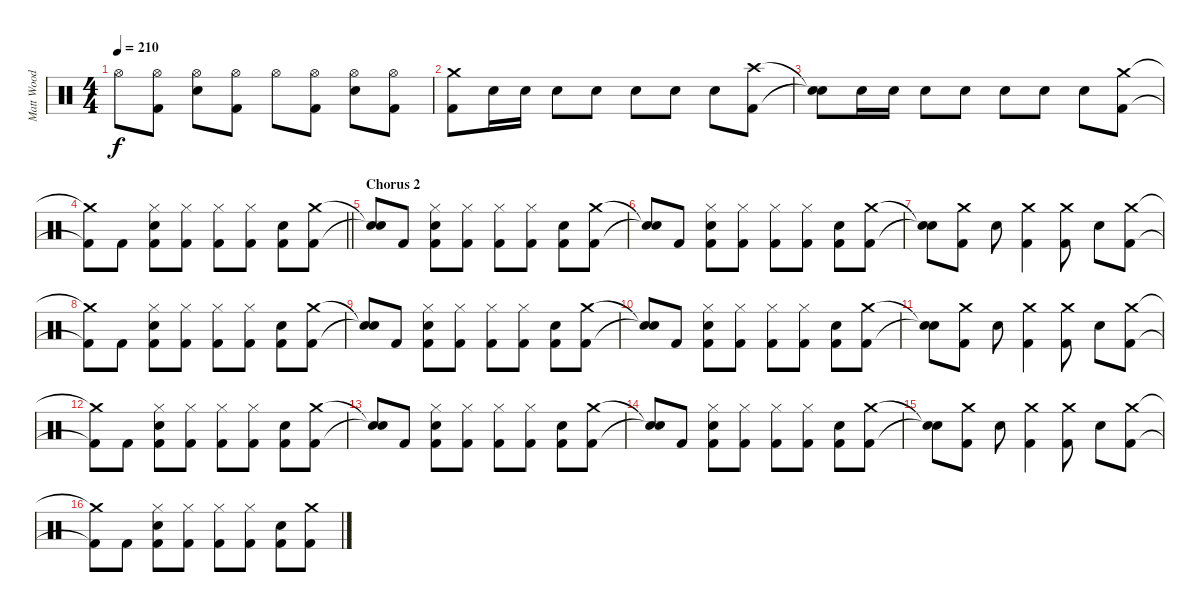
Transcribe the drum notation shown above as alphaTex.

\track ("Matt Wood" "Matt Wood") {instrument percussion}
\staff {score}
\articulation defaults
\ts (4 4)
\tempo 210
\clef neutral
\ks c "Hi-Hat (open)".8{dy f}
("Hi-Hat (open)" "Kick (hit) 2").8 ("Hi-Hat (open)" "Snare (hit) 2").8 ("Hi-Hat (open)" "Kick (hit) 2").8 "Hi-Hat (open)".8 ("Hi-Hat (open)" "Kick (hit) 2").8 ("Hi-Hat (open)" "Snare (hit) 2").8 ("Hi-Hat (open)" "Kick (hit) 2").8 |
("Crash medium (hit)" "Kick (hit) 2").8 "Snare (hit) 2".16 "Snare (hit) 2".16 "Snare (hit) 2".8 "Snare (hit) 2".8 "Snare (hit) 2".8 "Snare (hit) 2".8 "Snare (hit) 2".8 ("Crash high (hit)" "Kick (hit) 2").8 |
("Snare (hit)"{t} "Snare (hit)"{t}).8 "Snare (hit) 2".16 "Snare (hit) 2".16 "Snare (hit) 2".8 "Snare (hit) 2".8 "Snare (hit) 2".8 "Snare (hit) 2".8 "Snare (hit) 2".8 ("Crash medium (hit)" "Kick (hit) 2").8 |
\barLineRight lightlight
("Crash medium (hit)"{t} "Kick (hit) 2"{t}).8 "Kick (hit) 2".8 ("Hi-Hat (closed)" "Snare (hit) 2" "Kick (hit) 2").8 ("Hi-Hat (closed)" "Kick (hit) 2").8 ("Hi-Hat (closed)" "Kick (hit) 2").8 ("Hi-Hat (closed)" "Kick (hit) 2").8 ("Snare (hit) 2" "Kick (hit) 2").8 ("Crash medium (hit)" "Kick (hit) 2").8 |
\section ("" "Chorus 2")
("Snare (hit)"{t} "Snare (hit)"{t}).8 "Kick (hit) 2".8 ("Hi-Hat (closed)" "Snare (hit) 2" "Kick (hit) 2").8 ("Hi-Hat (closed)" "Kick (hit) 2").8 ("Hi-Hat (closed)" "Kick (hit) 2").8 ("Hi-Hat (closed)" "Kick (hit) 2").8 ("Snare (hit) 2" "Kick (hit) 2").8 ("Crash medium (hit)" "Kick (hit) 2").8 |
("Snare (hit)"{t} "Snare (hit)"{t}).8 "Kick (hit) 2".8 ("Hi-Hat (closed)" "Snare (hit) 2" "Kick (hit) 2").8 ("Hi-Hat (closed)" "Kick (hit) 2").8 ("Hi-Hat (closed)" "Kick (hit) 2").8 ("Hi-Hat (closed)" "Kick (hit) 2").8 ("Snare (hit) 2" "Kick (hit) 2").8 ("Crash medium (hit)" "Kick (hit) 2").8 |
("Snare (hit)"{t} "Snare (hit)"{t}).8 ("Crash medium (hit)" "Kick (hit) 2").8 "Snare (hit) 2".8 ("Crash medium (hit)" "Kick (hit) 2").4 ("Crash medium (hit)" "Kick (hit) 2").8 "Snare (hit) 2".8 ("Crash medium (hit)" "Kick (hit) 2").8 |
("Crash medium (hit)"{t} "Kick (hit) 2"{t}).8 "Kick (hit) 2".8 ("Hi-Hat (closed)" "Snare (hit) 2" "Kick (hit) 2").8 ("Hi-Hat (closed)" "Kick (hit) 2").8 ("Hi-Hat (closed)" "Kick (hit) 2").8 ("Hi-Hat (closed)" "Kick (hit) 2").8 ("Snare (hit) 2" "Kick (hit) 2").8 ("Crash medium (hit)" "Kick (hit) 2").8 |
("Snare (hit)"{t} "Snare (hit)"{t}).8 "Kick (hit) 2".8 ("Hi-Hat (closed)" "Snare (hit) 2" "Kick (hit) 2").8 ("Hi-Hat (closed)" "Kick (hit) 2").8 ("Hi-Hat (closed)" "Kick (hit) 2").8 ("Hi-Hat (closed)" "Kick (hit) 2").8 ("Snare (hit) 2" "Kick (hit) 2").8 ("Crash medium (hit)" "Kick (hit) 2").8 |
("Snare (hit)"{t} "Snare (hit)"{t}).8 "Kick (hit) 2".8 ("Hi-Hat (closed)" "Snare (hit) 2" "Kick (hit) 2").8 ("Hi-Hat (closed)" "Kick (hit) 2").8 ("Hi-Hat (closed)" "Kick (hit) 2").8 ("Hi-Hat (closed)" "Kick (hit) 2").8 ("Snare (hit) 2" "Kick (hit) 2").8 ("Crash medium (hit)" "Kick (hit) 2").8 |
("Snare (hit)"{t} "Snare (hit)"{t}).8 ("Crash medium (hit)" "Kick (hit) 2").8 "Snare (hit) 2".8 ("Crash medium (hit)" "Kick (hit) 2").4 ("Crash medium (hit)" "Kick (hit) 2").8 "Snare (hit) 2".8 ("Crash medium (hit)" "Kick (hit) 2").8 |
("Crash medium (hit)"{t} "Kick (hit) 2"{t}).8 "Kick (hit) 2".8 ("Hi-Hat (closed)" "Snare (hit) 2" "Kick (hit) 2").8 ("Hi-Hat (closed)" "Kick (hit) 2").8 ("Hi-Hat (closed)" "Kick (hit) 2").8 ("Hi-Hat (closed)" "Kick (hit) 2").8 ("Snare (hit) 2" "Kick (hit) 2").8 ("Crash medium (hit)" "Kick (hit) 2").8 |
("Snare (hit)"{t} "Snare (hit)"{t}).8 "Kick (hit) 2".8 ("Hi-Hat (closed)" "Snare (hit) 2" "Kick (hit) 2").8 ("Hi-Hat (closed)" "Kick (hit) 2").8 ("Hi-Hat (closed)" "Kick (hit) 2").8 ("Hi-Hat (closed)" "Kick (hit) 2").8 ("Snare (hit) 2" "Kick (hit) 2").8 ("Crash medium (hit)" "Kick (hit) 2").8 |
("Snare (hit)"{t} "Snare (hit)"{t}).8 "Kick (hit) 2".8 ("Hi-Hat (closed)" "Snare (hit) 2" "Kick (hit) 2").8 ("Hi-Hat (closed)" "Kick (hit) 2").8 ("Hi-Hat (closed)" "Kick (hit) 2").8 ("Hi-Hat (closed)" "Kick (hit) 2").8 ("Snare (hit) 2" "Kick (hit) 2").8 ("Crash medium (hit)" "Kick (hit) 2").8 |
("Snare (hit)"{t} "Snare (hit)"{t}).8 ("Crash medium (hit)" "Kick (hit) 2").8 "Snare (hit) 2".8 ("Crash medium (hit)" "Kick (hit) 2").4 ("Crash medium (hit)" "Kick (hit) 2").8 "Snare (hit) 2".8 ("Crash medium (hit)" "Kick (hit) 2").8 |
("Crash medium (hit)"{t} "Kick (hit) 2"{t}).8 "Kick (hit) 2".8 ("Hi-Hat (closed)" "Snare (hit) 2" "Kick (hit) 2").8 ("Hi-Hat (closed)" "Kick (hit) 2").8 ("Hi-Hat (closed)" "Kick (hit) 2").8 ("Hi-Hat (closed)" "Kick (hit) 2").8 ("Snare (hit) 2" "Kick (hit) 2").8 ("Crash medium (hit)" "Kick (hit) 2").8
